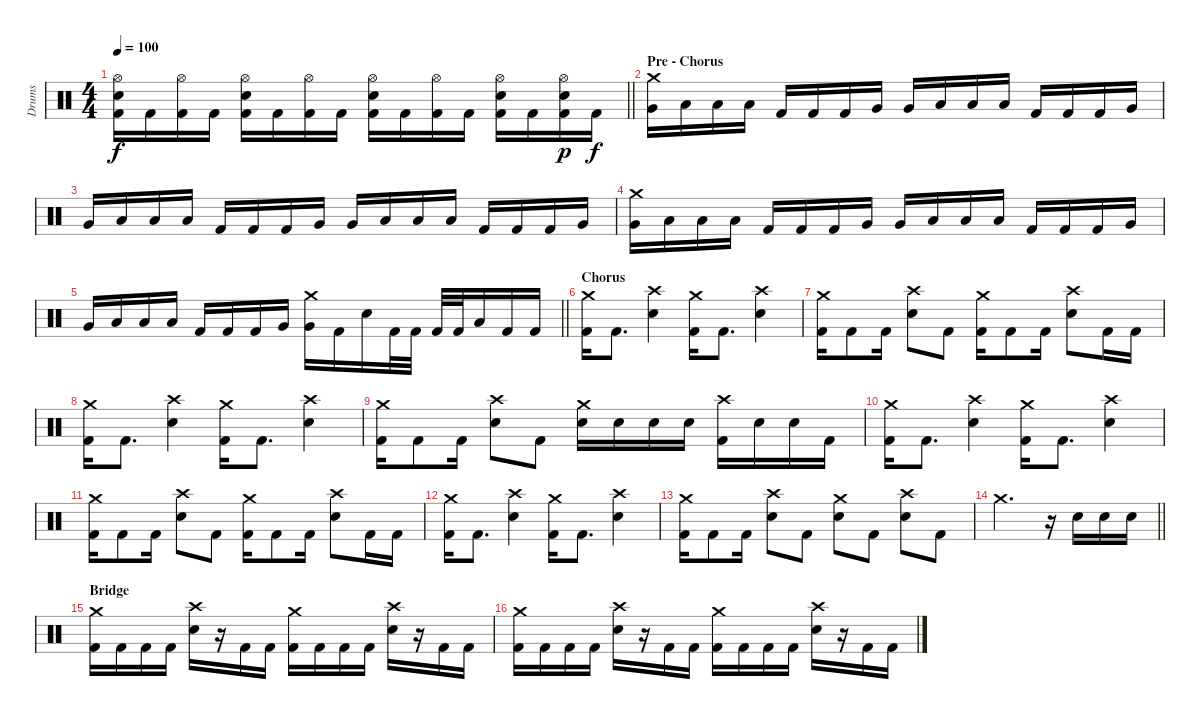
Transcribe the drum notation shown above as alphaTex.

\track ("Drums" "Drums") {instrument percussion}
\staff {score}
\articulation defaults
\ts (4 4)
\tempo 100
\clef neutral
\barLineRight lightlight
\ks c
("Hi-Hat (open)" "Snare (hit) 2" "Kick (hit) 2").16{dy f} "Kick (hit) 2".16 ("Hi-Hat (open)" "Kick (hit) 2").16 "Kick (hit) 2".16 ("Hi-Hat (open)" "Snare (hit) 2" "Kick (hit) 2").16 "Kick (hit) 2".16 ("Hi-Hat (open)" "Kick (hit) 2").16 "Kick (hit) 2".16 ("Hi-Hat (open)" "Snare (hit) 2" "Kick (hit) 2").16 "Kick (hit) 2".16 ("Hi-Hat (open)" "Kick (hit) 2").16 "Kick (hit) 2".16 ("Hi-Hat (open)" "Snare (hit) 2" "Kick (hit) 2").16 "Kick (hit) 2".16 ("Hi-Hat (open)" "Electric Snare (hit)" "Kick (hit) 2").16{dy p} "Kick (hit) 2".16{dy f} |
\section ("" "Pre - Chorus")
("Crash medium (hit)" "Very Low Tom (hit)").16 "Low Floor Tom (hit)".16 "Low Floor Tom (hit)".16 "Low Floor Tom (hit)".16 "Kick (hit) 2".16 "Kick (hit) 2".16 "Kick (hit) 2".16 "Very Low Tom (hit)".16 "Very Low Tom (hit)".16 "Low Floor Tom (hit)".16 "Low Floor Tom (hit)".16 "Low Floor Tom (hit)".16 "Kick (hit) 2".16 "Kick (hit) 2".16 "Kick (hit) 2".16 "Very Low Tom (hit)".16 |
"Very Low Tom (hit)".16 "Low Floor Tom (hit)".16 "Low Floor Tom (hit)".16 "Low Floor Tom (hit)".16 "Kick (hit) 2".16 "Kick (hit) 2".16 "Kick (hit) 2".16 "Very Low Tom (hit)".16 "Very Low Tom (hit)".16 "Low Floor Tom (hit)".16 "Low Floor Tom (hit)".16 "Low Floor Tom (hit)".16 "Kick (hit) 2".16 "Kick (hit) 2".16 "Kick (hit) 2".16 "Very Low Tom (hit)".16 |
("Crash medium (hit)" "Very Low Tom (hit)").16 "Low Floor Tom (hit)".16 "Low Floor Tom (hit)".16 "Low Floor Tom (hit)".16 "Kick (hit) 2".16 "Kick (hit) 2".16 "Kick (hit) 2".16 "Very Low Tom (hit)".16 "Very Low Tom (hit)".16 "Low Floor Tom (hit)".16 "Low Floor Tom (hit)".16 "Low Floor Tom (hit)".16 "Kick (hit) 2".16 "Kick (hit) 2".16 "Kick (hit) 2".16 "Very Low Tom (hit)".16 |
\barLineRight lightlight "Very Low Tom (hit)".16 "Low Floor Tom (hit)".16 "Low Floor Tom (hit)".16 "Low Floor Tom (hit)".16 "Kick (hit) 2".16 "Kick (hit) 2".16 "Kick (hit) 2".16 "Very Low Tom (hit)".16
("Crash medium (hit)" "Very Low Tom (hit)").16 "Kick (hit) 2".16 "Electric Snare (hit)".16 "Kick (hit) 2".32 "Kick (hit) 2".32 "Kick (hit) 2".32 "Kick (hit) 2".32 "Low Tom (hit)".16 "Kick (hit) 2".16 "Kick (hit) 2".16 |
\section ("" "Chorus")
("Crash medium (hit)" "Kick (hit) 2").16 "Kick (hit) 2".8{d} ("Crash high (hit)" "Electric Snare (hit)").4 ("Crash medium (hit)" "Kick (hit) 2").16 "Kick (hit) 2".8{d} ("Crash high (hit)" "Electric Snare (hit)").4 |
("Crash medium (hit)" "Kick (hit) 2").16 "Kick (hit) 2".8 "Kick (hit) 2".16 ("Crash high (hit)" "Electric Snare (hit)").8 "Kick (hit) 2".8 ("Crash medium (hit)" "Kick (hit) 2").16 "Kick (hit) 2".8 "Kick (hit) 2".16 ("Crash high (hit)" "Electric Snare (hit)").8 "Kick (hit) 2".16 "Kick (hit) 2".16 |
("Crash medium (hit)" "Kick (hit) 2").16 "Kick (hit) 2".8{d} ("Crash high (hit)" "Electric Snare (hit)").4 ("Crash medium (hit)" "Kick (hit) 2").16 "Kick (hit) 2".8{d} ("Crash high (hit)" "Electric Snare (hit)").4 |
("Crash medium (hit)" "Kick (hit) 2").16 "Kick (hit) 2".8 "Kick (hit) 2".16 ("Crash high (hit)" "Electric Snare (hit)").8 "Kick (hit) 2".8 ("Crash medium (hit)" "Electric Snare (hit)").16 "Electric Snare (hit)".16 "Electric Snare (hit)".16 "Electric Snare (hit)".16 ("Crash high (hit)" "Kick (hit) 2").16 "Electric Snare (hit)".16 "Electric Snare (hit)".16 "Kick (hit) 2".16 |
("Crash medium (hit)" "Kick (hit) 2").16 "Kick (hit) 2".8{d} ("Crash high (hit)" "Electric Snare (hit)").4 ("Crash medium (hit)" "Kick (hit) 2").16 "Kick (hit) 2".8{d} ("Crash high (hit)" "Electric Snare (hit)").4 |
("Crash medium (hit)" "Kick (hit) 2").16 "Kick (hit) 2".8 "Kick (hit) 2".16 ("Crash high (hit)" "Electric Snare (hit)").8 "Kick (hit) 2".8 ("Crash medium (hit)" "Kick (hit) 2").16 "Kick (hit) 2".8 "Kick (hit) 2".16 ("Crash high (hit)" "Electric Snare (hit)").8 "Kick (hit) 2".16 "Kick (hit) 2".16 |
("Crash medium (hit)" "Kick (hit) 2").16 "Kick (hit) 2".8{d} ("Crash high (hit)" "Electric Snare (hit)").4 ("Crash medium (hit)" "Kick (hit) 2").16 "Kick (hit) 2".8{d} ("Crash high (hit)" "Electric Snare (hit)").4 |
("Crash medium (hit)" "Kick (hit) 2").16 "Kick (hit) 2".8 "Kick (hit) 2".16 ("Crash high (hit)" "Electric Snare (hit)").8 "Kick (hit) 2".8 ("Crash medium (hit)" "Electric Snare (hit)").8 "Kick (hit) 2".8 ("Crash high (hit)" "Electric Snare (hit)").8 "Kick (hit) 2".8 |
\barLineRight lightlight "Crash medium (hit)".2{d}
r.16 "Electric Snare (hit)".16 "Electric Snare (hit)".16 "Electric Snare (hit)".16 |
\section ("" "Bridge")
("Crash medium (hit)" "Kick (hit) 2").16 "Kick (hit) 2".16 "Kick (hit) 2".16 "Kick (hit) 2".16 ("Crash high (hit)" "Snare (hit) 2").16 r.16 "Kick (hit) 2".16 "Kick (hit) 2".16 ("Crash medium (hit)" "Kick (hit) 2").16 "Kick (hit) 2".16 "Kick (hit) 2".16 "Kick (hit) 2".16 ("Crash high (hit)" "Snare (hit) 2").16 r.16 "Kick (hit) 2".16 "Kick (hit) 2".16 |
("Crash medium (hit)" "Kick (hit) 2").16 "Kick (hit) 2".16 "Kick (hit) 2".16 "Kick (hit) 2".16 ("Crash high (hit)" "Snare (hit) 2").16 r.16 "Kick (hit) 2".16 "Kick (hit) 2".16 ("Crash medium (hit)" "Kick (hit) 2").16 "Kick (hit) 2".16 "Kick (hit) 2".16 "Kick (hit) 2".16 ("Crash high (hit)" "Snare (hit) 2").16 r.16 "Kick (hit) 2".16 "Kick (hit) 2".16
